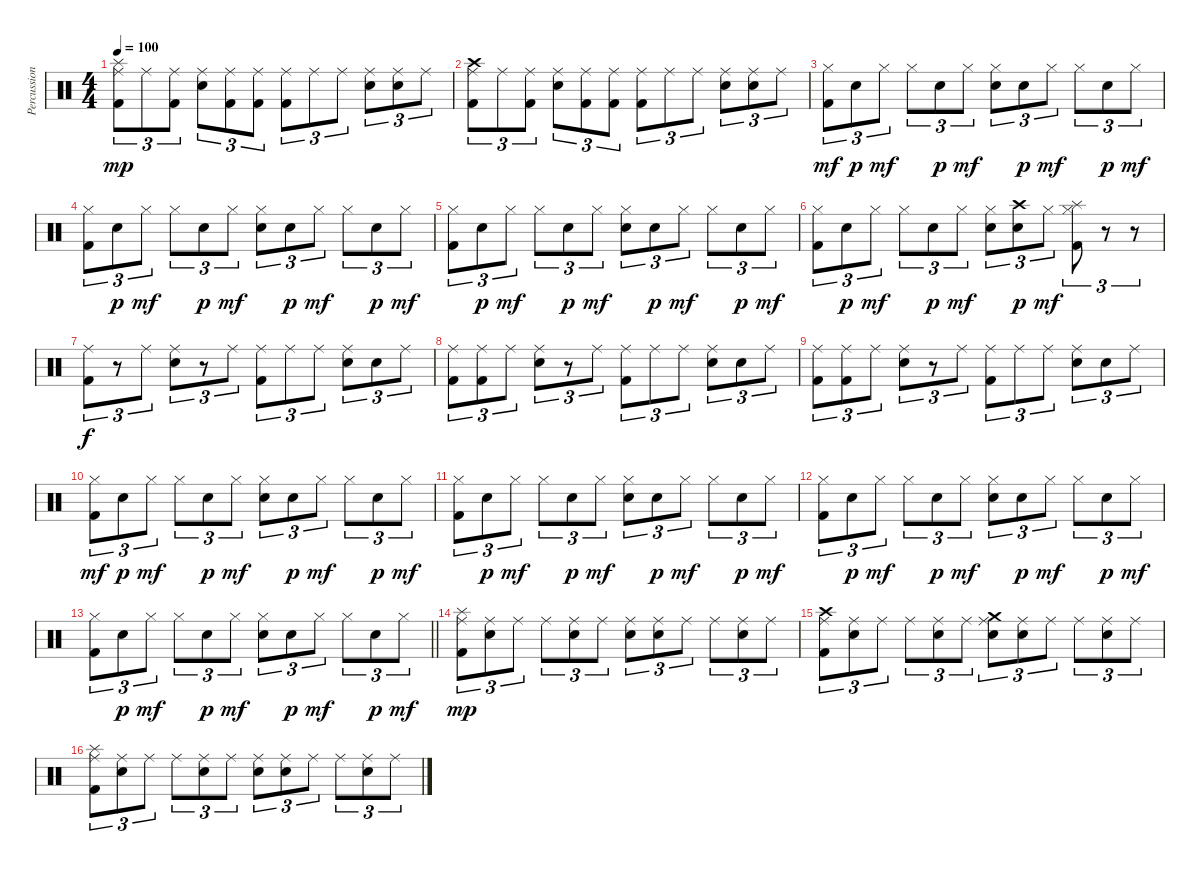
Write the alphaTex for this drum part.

\track ("Percussion" "Percussion") {instrument percussion}
\staff {score}
\articulation defaults
\ts (4 4)
\tempo 100
\clef neutral
\ks c
("Splash (hit)" "Kick (hit) 2" "Ride (middle)").8{tu (3 2) dy mp} "Ride (middle)".8{tu (3 2)} ("Kick (hit) 2" "Ride (middle)").8{tu (3 2)} ("Snare (hit) 2" "Ride (middle)").8{tu (3 2)} ("Kick (hit) 2" "Ride (middle)").8{tu (3 2)} ("Kick (hit) 2" "Ride (middle)").8{tu (3 2)} ("Kick (hit) 2" "Ride (middle)").8{tu (3 2)} "Ride (middle)".8{tu (3 2)} "Ride (middle)".8{tu (3 2)} ("Snare (hit) 2" "Ride (middle)").8{tu (3 2)} ("Snare (hit) 2" "Ride (middle)").8{tu (3 2)} "Ride (middle)".8{tu (3 2)} |
("Crash high (hit)" "Kick (hit) 2" "Ride (middle)").8{tu (3 2)} "Ride (middle)".8{tu (3 2)} ("Kick (hit) 2" "Ride (middle)").8{tu (3 2)} ("Snare (hit) 2" "Ride (middle)").8{tu (3 2)} ("Kick (hit) 2" "Ride (middle)").8{tu (3 2)} ("Kick (hit) 2" "Ride (middle)").8{tu (3 2)} ("Kick (hit) 2" "Ride (middle)").8{tu (3 2)} "Ride (middle)".8{tu (3 2)} "Ride (middle)".8{tu (3 2)} ("Snare (hit) 2" "Ride (middle)").8{tu (3 2)} ("Snare (hit) 2" "Ride (middle)").8{tu (3 2)} "Ride (middle)".8{tu (3 2)} |
("Kick (hit) 2" "Hi-Hat (closed)").8{tu (3 2) dy mf} "Snare (hit) 2".8{tu (3 2) dy p} "Hi-Hat (closed)".8{tu (3 2) dy mf} "Hi-Hat (closed)".8{tu (3 2)} "Snare (hit) 2".8{tu (3 2) dy p} "Hi-Hat (closed)".8{tu (3 2) dy mf} ("Snare (hit) 2" "Hi-Hat (closed)").8{tu (3 2)} "Snare (hit) 2".8{tu (3 2) dy p} "Hi-Hat (closed)".8{tu (3 2) dy mf} "Hi-Hat (closed)".8{tu (3 2)} "Snare (hit) 2".8{tu (3 2) dy p} "Hi-Hat (closed)".8{tu (3 2) dy mf} |
("Kick (hit) 2" "Hi-Hat (closed)").8{tu (3 2)} "Snare (hit) 2".8{tu (3 2) dy p} "Hi-Hat (closed)".8{tu (3 2) dy mf} "Hi-Hat (closed)".8{tu (3 2)} "Snare (hit) 2".8{tu (3 2) dy p} "Hi-Hat (closed)".8{tu (3 2) dy mf} ("Snare (hit) 2" "Hi-Hat (closed)").8{tu (3 2)} "Snare (hit) 2".8{tu (3 2) dy p} "Hi-Hat (closed)".8{tu (3 2) dy mf} "Hi-Hat (closed)".8{tu (3 2)} "Snare (hit) 2".8{tu (3 2) dy p} "Hi-Hat (closed)".8{tu (3 2) dy mf} |
("Kick (hit) 2" "Hi-Hat (closed)").8{tu (3 2)} "Snare (hit) 2".8{tu (3 2) dy p} "Hi-Hat (closed)".8{tu (3 2) dy mf} "Hi-Hat (closed)".8{tu (3 2)} "Snare (hit) 2".8{tu (3 2) dy p} "Hi-Hat (closed)".8{tu (3 2) dy mf} ("Snare (hit) 2" "Hi-Hat (closed)").8{tu (3 2)} "Snare (hit) 2".8{tu (3 2) dy p} "Hi-Hat (closed)".8{tu (3 2) dy mf} "Hi-Hat (closed)".8{tu (3 2)} "Snare (hit) 2".8{tu (3 2) dy p} "Hi-Hat (closed)".8{tu (3 2) dy mf} |
("Kick (hit) 2" "Hi-Hat (closed)").8{tu (3 2)} "Snare (hit) 2".8{tu (3 2) dy p} "Hi-Hat (closed)".8{tu (3 2) dy mf} "Hi-Hat (closed)".8{tu (3 2)} "Snare (hit) 2".8{tu (3 2) dy p} "Hi-Hat (closed)".8{tu (3 2) dy mf} ("Snare (hit) 2" "Hi-Hat (closed)").8{tu (3 2)} ("Crash high (hit)" "Snare (hit) 2").8{tu (3 2) dy p} "Hi-Hat (closed)".8{tu (3 2) dy mf} ("Splash (hit)" "Kick (hit) 2" "Hi-Hat (closed)").8{tu (3 2)} r.8{tu (3 2)} r.8{tu (3 2)} |
("Kick (hit) 2" "Ride (middle)").8{tu (3 2) dy f} r.8{tu (3 2)} "Ride (middle)".8{tu (3 2)} ("Snare (hit) 2" "Ride (middle)").8{tu (3 2)} r.8{tu (3 2)} "Ride (middle)".8{tu (3 2)} ("Kick (hit) 2" "Ride (middle)").8{tu (3 2)} "Ride (middle)".8{tu (3 2)} "Ride (middle)".8{tu (3 2)} ("Snare (hit) 2" "Ride (middle)").8{tu (3 2)} "Snare (hit) 2".8{tu (3 2)} "Ride (middle)".8{tu (3 2)} |
("Kick (hit) 2" "Ride (middle)").8{tu (3 2)} ("Kick (hit) 2" "Ride (middle)").8{tu (3 2)} "Ride (middle)".8{tu (3 2)} ("Snare (hit) 2" "Ride (middle)").8{tu (3 2)} r.8{tu (3 2)} "Ride (middle)".8{tu (3 2)} ("Kick (hit) 2" "Ride (middle)").8{tu (3 2)} "Ride (middle)".8{tu (3 2)} "Ride (middle)".8{tu (3 2)} ("Snare (hit) 2" "Ride (middle)").8{tu (3 2)} "Snare (hit) 2".8{tu (3 2)} "Ride (middle)".8{tu (3 2)} |
("Kick (hit) 2" "Ride (middle)").8{tu (3 2)} ("Kick (hit) 2" "Ride (middle)").8{tu (3 2)} "Ride (middle)".8{tu (3 2)} ("Snare (hit) 2" "Ride (middle)").8{tu (3 2)} r.8{tu (3 2)} "Ride (middle)".8{tu (3 2)} ("Kick (hit) 2" "Ride (middle)").8{tu (3 2)} "Ride (middle)".8{tu (3 2)} "Ride (middle)".8{tu (3 2)} ("Snare (hit) 2" "Ride (middle)").8{tu (3 2)} "Snare (hit) 2".8{tu (3 2)} "Ride (middle)".8{tu (3 2)} |
("Kick (hit) 2" "Hi-Hat (closed)").8{tu (3 2) dy mf} "Snare (hit) 2".8{tu (3 2) dy p} "Hi-Hat (closed)".8{tu (3 2) dy mf} "Hi-Hat (closed)".8{tu (3 2)} "Snare (hit) 2".8{tu (3 2) dy p} "Hi-Hat (closed)".8{tu (3 2) dy mf} ("Snare (hit) 2" "Hi-Hat (closed)").8{tu (3 2)} "Snare (hit) 2".8{tu (3 2) dy p} "Hi-Hat (closed)".8{tu (3 2) dy mf} "Hi-Hat (closed)".8{tu (3 2)} "Snare (hit) 2".8{tu (3 2) dy p} "Hi-Hat (closed)".8{tu (3 2) dy mf} |
("Kick (hit) 2" "Hi-Hat (closed)").8{tu (3 2)} "Snare (hit) 2".8{tu (3 2) dy p} "Hi-Hat (closed)".8{tu (3 2) dy mf} "Hi-Hat (closed)".8{tu (3 2)} "Snare (hit) 2".8{tu (3 2) dy p} "Hi-Hat (closed)".8{tu (3 2) dy mf} ("Snare (hit) 2" "Hi-Hat (closed)").8{tu (3 2)} "Snare (hit) 2".8{tu (3 2) dy p} "Hi-Hat (closed)".8{tu (3 2) dy mf} "Hi-Hat (closed)".8{tu (3 2)} "Snare (hit) 2".8{tu (3 2) dy p} "Hi-Hat (closed)".8{tu (3 2) dy mf} |
("Kick (hit) 2" "Hi-Hat (closed)").8{tu (3 2)} "Snare (hit) 2".8{tu (3 2) dy p} "Hi-Hat (closed)".8{tu (3 2) dy mf} "Hi-Hat (closed)".8{tu (3 2)} "Snare (hit) 2".8{tu (3 2) dy p} "Hi-Hat (closed)".8{tu (3 2) dy mf} ("Snare (hit) 2" "Hi-Hat (closed)").8{tu (3 2)} "Snare (hit) 2".8{tu (3 2) dy p} "Hi-Hat (closed)".8{tu (3 2) dy mf} "Hi-Hat (closed)".8{tu (3 2)} "Snare (hit) 2".8{tu (3 2) dy p} "Hi-Hat (closed)".8{tu (3 2) dy mf} |
\barLineRight lightlight
("Kick (hit) 2" "Hi-Hat (closed)").8{tu (3 2)} "Snare (hit) 2".8{tu (3 2) dy p} "Hi-Hat (closed)".8{tu (3 2) dy mf} "Hi-Hat (closed)".8{tu (3 2)} "Snare (hit) 2".8{tu (3 2) dy p} "Hi-Hat (closed)".8{tu (3 2) dy mf} ("Snare (hit) 2" "Hi-Hat (closed)").8{tu (3 2)} "Snare (hit) 2".8{tu (3 2) dy p} "Hi-Hat (closed)".8{tu (3 2) dy mf} "Hi-Hat (closed)".8{tu (3 2)} "Snare (hit) 2".8{tu (3 2) dy p} "Hi-Hat (closed)".8{tu (3 2) dy mf} |
("Splash (hit)" "Kick (hit) 2" "Ride (middle)").8{tu (3 2) dy mp} ("Snare (hit) 2" "Ride (middle)").8{tu (3 2)} "Ride (middle)".8{tu (3 2)} "Ride (middle)".8{tu (3 2)} ("Snare (hit) 2" "Ride (middle)").8{tu (3 2)} "Ride (middle)".8{tu (3 2)} ("Snare (hit) 2" "Ride (middle)").8{tu (3 2)} ("Snare (hit) 2" "Ride (middle)").8{tu (3 2)} "Ride (middle)".8{tu (3 2)} "Ride (middle)".8{tu (3 2)} ("Snare (hit) 2" "Ride (middle)").8{tu (3 2)} "Ride (middle)".8{tu (3 2)} |
("Crash high (hit)" "Kick (hit) 2" "Ride (middle)").8{tu (3 2)} ("Snare (hit) 2" "Ride (middle)").8{tu (3 2)} "Ride (middle)".8{tu (3 2)} "Ride (middle)".8{tu (3 2)} ("Snare (hit) 2" "Ride (middle)").8{tu (3 2)} "Ride (middle)".8{tu (3 2)} ("Crash medium (hit)" "Snare (hit) 2" "Ride (middle)").8{tu (3 2)} ("Snare (hit) 2" "Ride (middle)").8{tu (3 2)} "Ride (middle)".8{tu (3 2)} "Ride (middle)".8{tu (3 2)} ("Snare (hit) 2" "Ride (middle)").8{tu (3 2)} "Ride (middle)".8{tu (3 2)} |
("Splash (hit)" "Kick (hit) 2" "Ride (middle)").8{tu (3 2)} ("Snare (hit) 2" "Ride (middle)").8{tu (3 2)} "Ride (middle)".8{tu (3 2)} "Ride (middle)".8{tu (3 2)} ("Snare (hit) 2" "Ride (middle)").8{tu (3 2)} "Ride (middle)".8{tu (3 2)} ("Snare (hit) 2" "Ride (middle)").8{tu (3 2)} ("Snare (hit) 2" "Ride (middle)").8{tu (3 2)} "Ride (middle)".8{tu (3 2)} "Ride (middle)".8{tu (3 2)} ("Snare (hit) 2" "Ride (middle)").8{tu (3 2)} "Ride (middle)".8{tu (3 2)}
